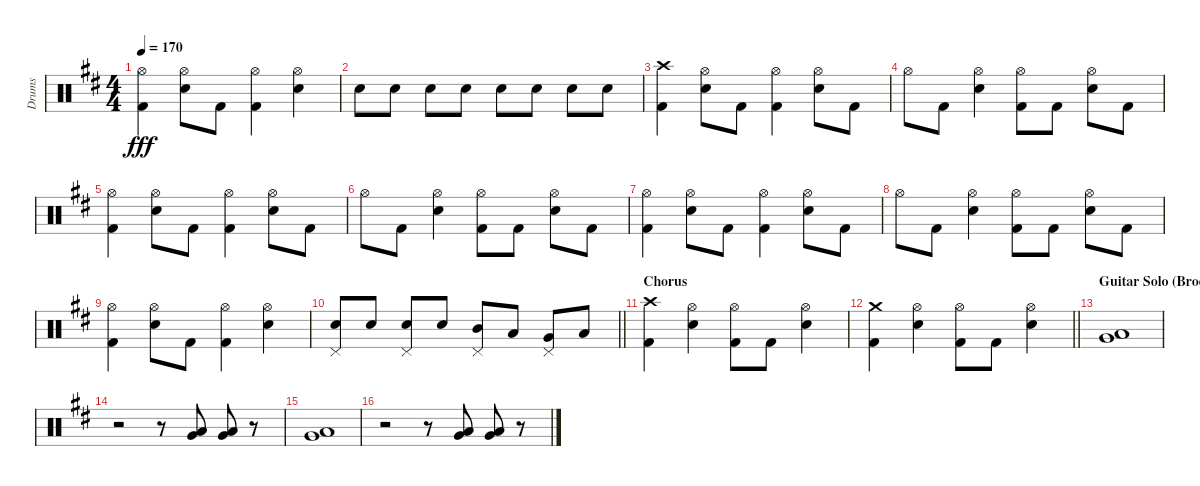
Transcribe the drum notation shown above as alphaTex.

\track ("Drums" "Drums") {instrument percussion}
\staff {score}
\articulation defaults
\ts (4 4)
\tempo 170
\clef neutral
\ks bminor
("Hi-Hat (open)" "Kick (hit) 2").4{dy fff} ("Hi-Hat (open)" "Snare (hit) 2").8 "Kick (hit) 2".8 ("Hi-Hat (open)" "Kick (hit) 2").4 ("Hi-Hat (open)" "Snare (hit) 2").4 |
"Snare (hit) 2".8 "Snare (hit) 2".8 "Snare (hit) 2".8 "Snare (hit) 2".8 "Snare (hit) 2".8 "Snare (hit) 2".8 "Snare (hit) 2".8 "Snare (hit) 2".8 |
("Crash high (hit)" "Kick (hit) 2").4 ("Hi-Hat (open)" "Snare (hit) 2").8 "Kick (hit) 2".8 ("Hi-Hat (open)" "Kick (hit) 2").4 ("Hi-Hat (open)" "Snare (hit) 2").8 "Kick (hit) 2".8 |
"Hi-Hat (open)".8 "Kick (hit) 2".8 ("Hi-Hat (open)" "Snare (hit) 2").4 ("Hi-Hat (open)" "Kick (hit) 2").8 "Kick (hit) 2".8 ("Hi-Hat (open)" "Snare (hit) 2").8 "Kick (hit) 2".8 |
("Hi-Hat (open)" "Kick (hit) 2").4 ("Hi-Hat (open)" "Snare (hit) 2").8 "Kick (hit) 2".8 ("Hi-Hat (open)" "Kick (hit) 2").4 ("Hi-Hat (open)" "Snare (hit) 2").8 "Kick (hit) 2".8 |
"Hi-Hat (open)".8 "Kick (hit) 2".8 ("Hi-Hat (open)" "Snare (hit) 2").4 ("Hi-Hat (open)" "Kick (hit) 2").8 "Kick (hit) 2".8 ("Hi-Hat (open)" "Snare (hit) 2").8 "Kick (hit) 2".8 |
("Hi-Hat (open)" "Kick (hit) 2").4 ("Hi-Hat (open)" "Snare (hit) 2").8 "Kick (hit) 2".8 ("Hi-Hat (open)" "Kick (hit) 2").4 ("Hi-Hat (open)" "Snare (hit) 2").8 "Kick (hit) 2".8 |
"Hi-Hat (open)".8 "Kick (hit) 2".8 ("Hi-Hat (open)" "Snare (hit) 2").4 ("Hi-Hat (open)" "Kick (hit) 2").8 "Kick (hit) 2".8 ("Hi-Hat (open)" "Snare (hit) 2").8 "Kick (hit) 2".8 |
("Hi-Hat (open)" "Kick (hit) 2").4 ("Hi-Hat (open)" "Snare (hit) 2").8 "Kick (hit) 2".8 ("Hi-Hat (open)" "Kick (hit) 2").4 ("Hi-Hat (open)" "Snare (hit) 2").4 |
\barLineRight lightlight
("Pedal Hi-Hat (hit)" "Snare (hit) 2").8 "Snare (hit) 2".8 ("Pedal Hi-Hat (hit)" "Snare (hit) 2").8 "Snare (hit) 2".8 ("Pedal Hi-Hat (hit)" "Mid Tom (hit)").8 "Low Tom (hit)".8 ("Pedal Hi-Hat (hit)" "Very Low Tom (hit)").8 "Low Floor Tom (hit)".8 |
\section ("" "Chorus")
("Crash high (hit)" "Kick (hit) 2").4 ("Hi-Hat (open)" "Snare (hit) 2").4 ("Hi-Hat (open)" "Kick (hit) 2").8 "Kick (hit) 2".8 ("Hi-Hat (open)" "Snare (hit) 2").4 |
\barLineRight lightlight
("Crash medium (hit)" "Kick (hit) 2").4 ("Hi-Hat (open)" "Snare (hit) 2").4 ("Hi-Hat (open)" "Kick (hit) 2").8 "Kick (hit) 2".8 ("Hi-Hat (open)" "Snare (hit) 2").4 |
\section ("" "Guitar Solo (Broderick)")
("Very Low Tom (hit)" "Low Floor Tom (hit)").1 |
r.2 r.8 ("Very Low Tom (hit)" "Low Floor Tom (hit)").8 ("Very Low Tom (hit)" "Low Floor Tom (hit)").8 r.8 |
("Very Low Tom (hit)" "Low Floor Tom (hit)").1 |
r.2 r.8 ("Very Low Tom (hit)" "Low Floor Tom (hit)").8 ("Very Low Tom (hit)" "Low Floor Tom (hit)").8 r.8
